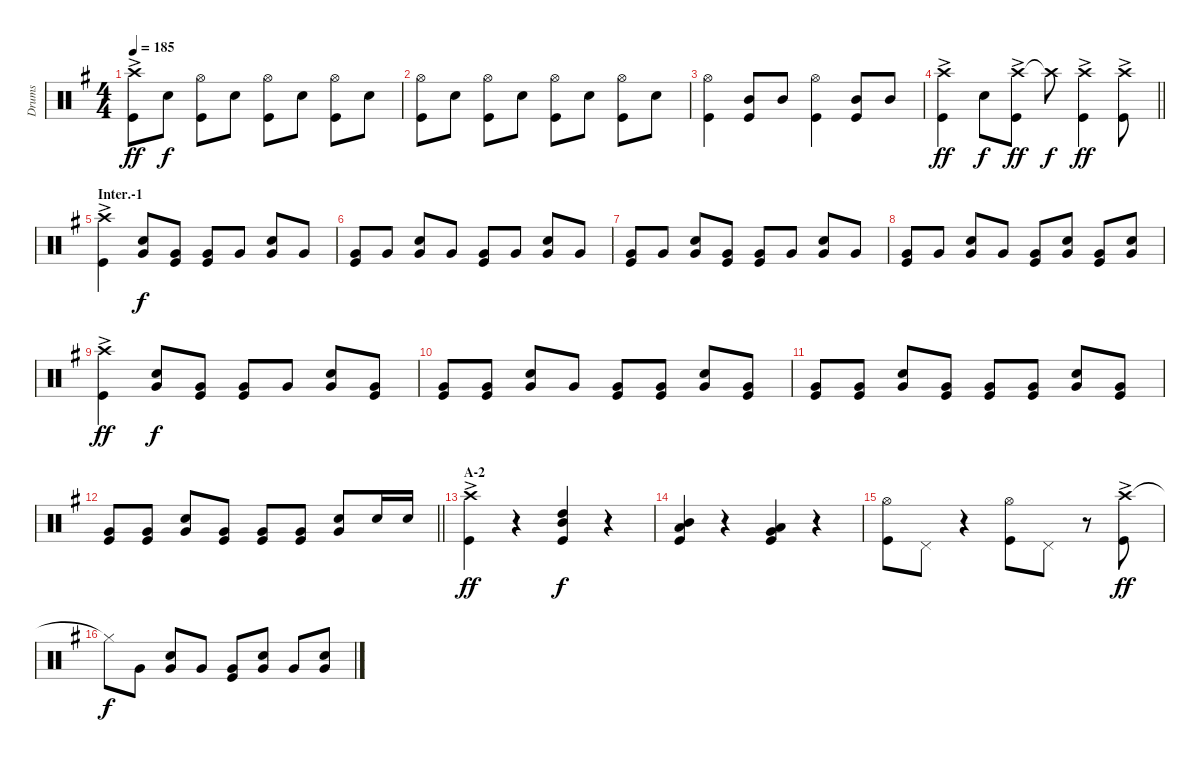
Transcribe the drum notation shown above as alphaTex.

\track ("Drums" "Drums") {instrument percussion}
\staff {score}
\articulation defaults
\ts (4 4)
\tempo 185
\clef neutral
\ks g
("Crash high (hit)"{ac} "Kick (hit)").8{dy ff} "Snare (hit) 2".8{dy f} ("Hi-Hat (open)" "Kick (hit)").8 "Snare (hit) 2".8 ("Hi-Hat (open)" "Kick (hit)").8 "Snare (hit) 2".8 ("Hi-Hat (open)" "Kick (hit)").8 "Snare (hit) 2".8 |
("Hi-Hat (open)" "Kick (hit)").8 "Snare (hit) 2".8 ("Hi-Hat (open)" "Kick (hit)").8 "Snare (hit) 2".8 ("Hi-Hat (open)" "Kick (hit)").8 "Snare (hit) 2".8 ("Hi-Hat (open)" "Kick (hit)").8 "Snare (hit) 2".8 |
("Hi-Hat (open)" "Kick (hit)").4 ("Mid Tom (hit)" "Kick (hit)").8 "Mid Tom (hit)".8 ("Hi-Hat (open)" "Kick (hit)").4 ("Mid Tom (hit)" "Kick (hit)").8 "Mid Tom (hit)".8 |
\barLineRight lightlight
("Crash high (hit)"{ac} "Kick (hit)").4{dy ff} "Snare (hit) 2".8{dy f} ("Crash high (hit)"{ac} "Kick (hit)").8{dy ff} "Crash high (hit)"{t}.8{dy f} ("Crash high (hit)"{ac} "Kick (hit)").4{dy ff} ("Crash high (hit)"{ac} "Kick (hit)").8 |
\section ("" "Inter.-1")
("Crash high (hit)"{ac} "Kick (hit)").4 ("Snare (hit) 2" "Very Low Tom (hit)").8{dy f} ("Very Low Tom (hit)" "Kick (hit)").8 ("Very Low Tom (hit)" "Kick (hit)").8 "Very Low Tom (hit)".8 ("Snare (hit) 2" "Very Low Tom (hit)").8 "Very Low Tom (hit)".8 |
("Very Low Tom (hit)" "Kick (hit)").8 "Very Low Tom (hit)".8 ("Snare (hit) 2" "Very Low Tom (hit)").8 "Very Low Tom (hit)".8 ("Very Low Tom (hit)" "Kick (hit)").8 "Very Low Tom (hit)".8 ("Snare (hit) 2" "Very Low Tom (hit)").8 "Very Low Tom (hit)".8 |
("Very Low Tom (hit)" "Kick (hit)").8 "Very Low Tom (hit)".8 ("Snare (hit) 2" "Very Low Tom (hit)").8 ("Very Low Tom (hit)" "Kick (hit)").8 ("Very Low Tom (hit)" "Kick (hit)").8 "Very Low Tom (hit)".8 ("Snare (hit) 2" "Very Low Tom (hit)").8 "Very Low Tom (hit)".8 |
("Very Low Tom (hit)" "Kick (hit)").8 "Very Low Tom (hit)".8 ("Snare (hit) 2" "Very Low Tom (hit)").8 "Very Low Tom (hit)".8 ("Very Low Tom (hit)" "Kick (hit)").8 ("Snare (hit) 2" "Very Low Tom (hit)").8 ("Very Low Tom (hit)" "Kick (hit)").8 ("Snare (hit) 2" "Very Low Tom (hit)").8 |
("Crash high (hit)"{ac} "Kick (hit)").4{dy ff} ("Snare (hit) 2" "Very Low Tom (hit)").8{dy f} ("Very Low Tom (hit)" "Kick (hit)").8 ("Very Low Tom (hit)" "Kick (hit)").8 "Very Low Tom (hit)".8 ("Snare (hit) 2" "Very Low Tom (hit)").8 ("Very Low Tom (hit)" "Kick (hit)").8 |
("Very Low Tom (hit)" "Kick (hit)").8 ("Very Low Tom (hit)" "Kick (hit)").8 ("Snare (hit) 2" "Very Low Tom (hit)").8 "Very Low Tom (hit)".8 ("Very Low Tom (hit)" "Kick (hit)").8 ("Very Low Tom (hit)" "Kick (hit)").8 ("Snare (hit) 2" "Very Low Tom (hit)").8 ("Very Low Tom (hit)" "Kick (hit)").8 |
("Very Low Tom (hit)" "Kick (hit)").8 ("Very Low Tom (hit)" "Kick (hit)").8 ("Snare (hit) 2" "Very Low Tom (hit)").8 ("Very Low Tom (hit)" "Kick (hit)").8 ("Very Low Tom (hit)" "Kick (hit)").8 ("Very Low Tom (hit)" "Kick (hit)").8 ("Snare (hit) 2" "Very Low Tom (hit)").8 ("Very Low Tom (hit)" "Kick (hit)").8 |
\barLineRight lightlight
("Very Low Tom (hit)" "Kick (hit)").8 ("Very Low Tom (hit)" "Kick (hit)").8 ("Snare (hit) 2" "Very Low Tom (hit)").8 ("Very Low Tom (hit)" "Kick (hit)").8 ("Very Low Tom (hit)" "Kick (hit)").8 ("Very Low Tom (hit)" "Kick (hit)").8 ("Snare (hit) 2" "Very Low Tom (hit)").8 "Snare (hit) 2".16 "Snare (hit) 2".16 |
\section ("" "A-2")
("Crash high (hit)"{ac} "Kick (hit)").4{dy ff} r.4 ("High Tom (hit)" "Mid Tom (hit)" "Kick (hit)").4{dy f} r.4 |
("Mid Tom (hit)" "Low Tom (hit)" "Kick (hit)").4 r.4 ("Low Tom (hit)" "Very Low Tom (hit)" "Kick (hit)").4 r.4 |
("Kick (hit)" "Hi-Hat (open)").8 "Pedal Hi-Hat (hit)".8 r.4 ("Kick (hit)" "Hi-Hat (open)").8 "Pedal Hi-Hat (hit)".8 r.8 ("Crash high (hit)"{ac} "Kick (hit)").8{dy ff} |
"Hi-Hat (closed)"{t}.8{dy f} "Very Low Tom (hit)".8 ("Snare (hit) 2" "Very Low Tom (hit)").8 "Very Low Tom (hit)".8 ("Very Low Tom (hit)" "Kick (hit)").8 ("Snare (hit) 2" "Very Low Tom (hit)").8 "Very Low Tom (hit)".8 ("Snare (hit) 2" "Very Low Tom (hit)").8
